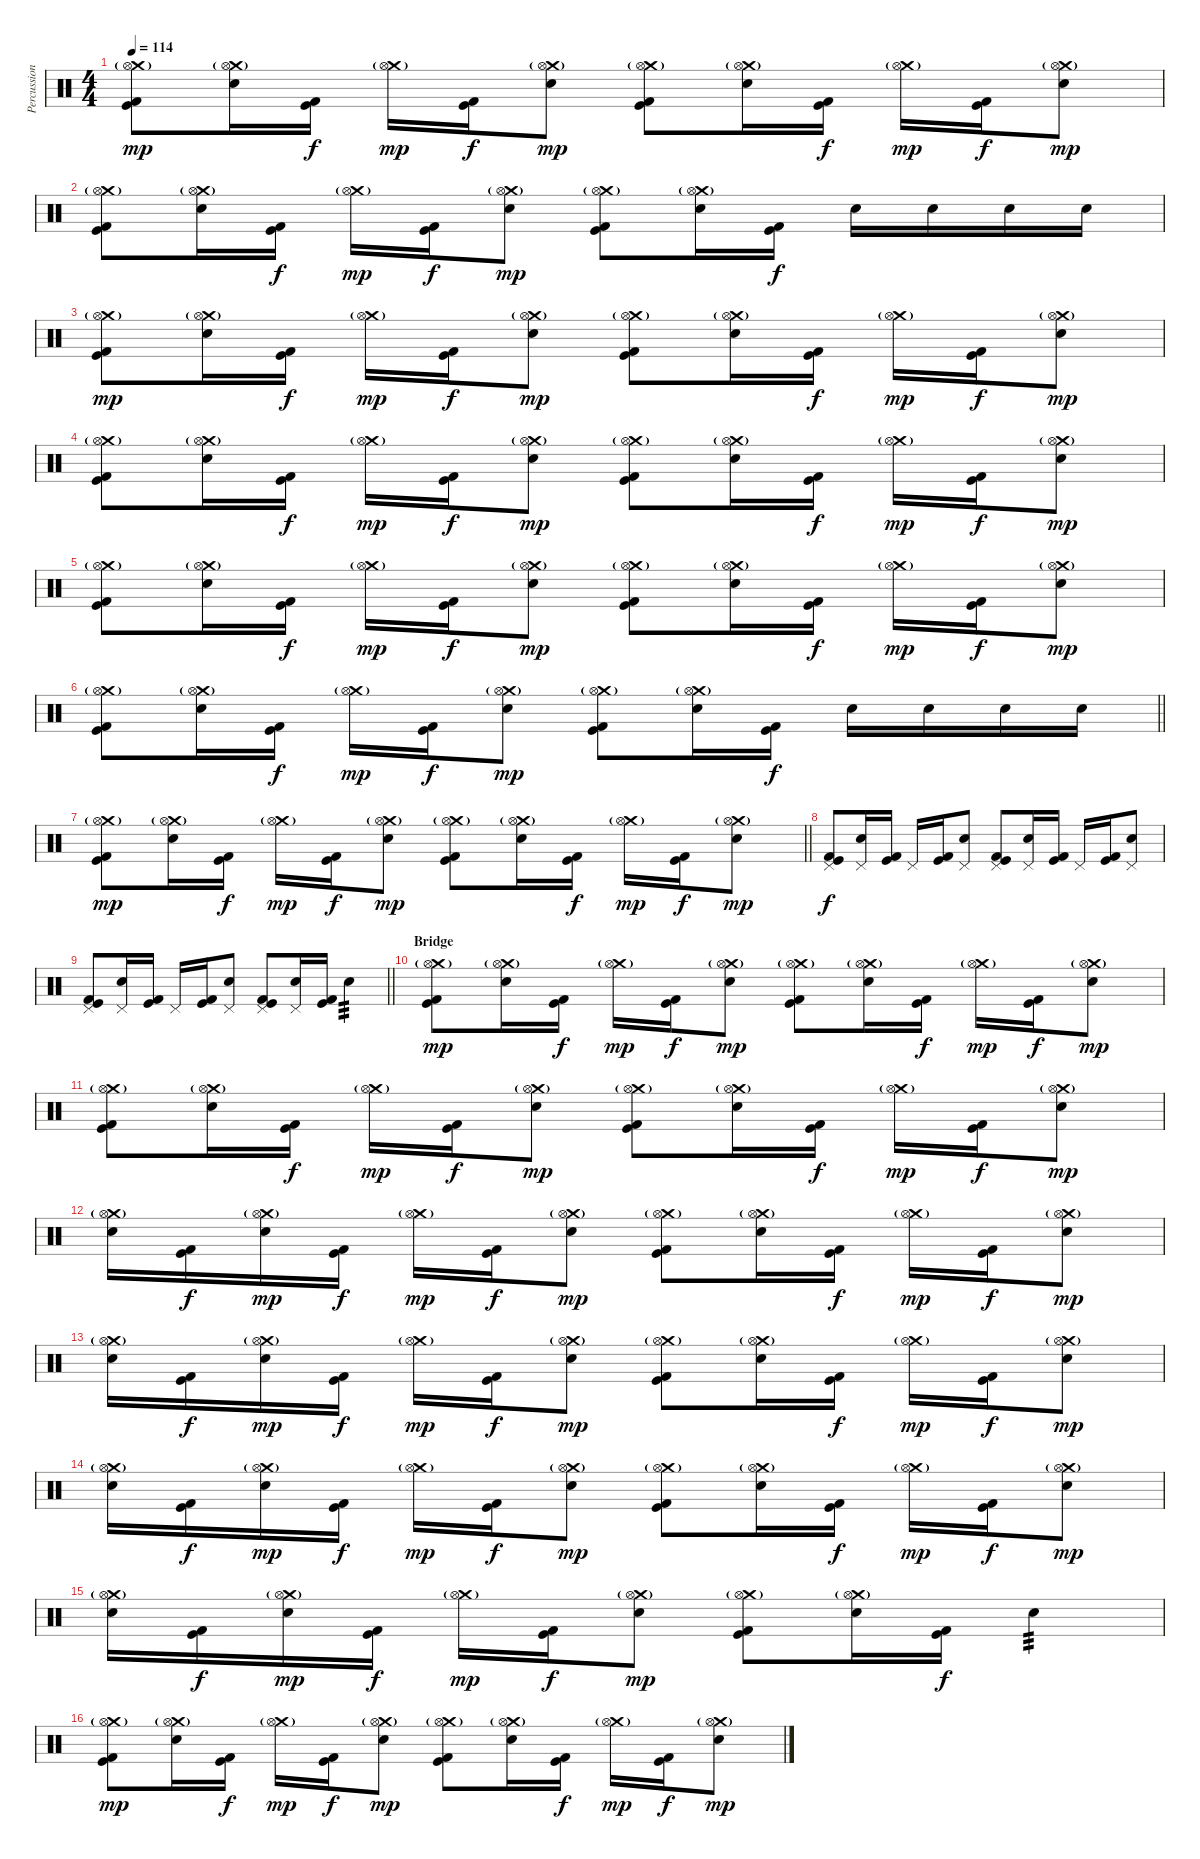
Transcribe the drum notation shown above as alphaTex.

\track ("Percussion" "Percussion") {instrument percussion}
\staff {score}
\articulation defaults
\ts (4 4)
\tempo 114
\clef neutral
\ks c
("Crash medium (hit)"{g} "Hi-Hat (open)" "Kick (hit)" "Kick (hit) 2").8{dy mp} ("Crash medium (hit)"{g} "Hi-Hat (open)" "Electric Snare (hit)").16 ("Kick (hit)" "Kick (hit) 2").16{dy f} ("Crash medium (hit)"{g} "Hi-Hat (open)").16{dy mp} ("Kick (hit)" "Kick (hit) 2").16{dy f} ("Crash medium (hit)"{g} "Hi-Hat (open)" "Electric Snare (hit)").8{dy mp} ("Crash medium (hit)"{g} "Hi-Hat (open)" "Kick (hit)" "Kick (hit) 2").8 ("Crash medium (hit)"{g} "Hi-Hat (open)" "Electric Snare (hit)").16 ("Kick (hit)" "Kick (hit) 2").16{dy f} ("Crash medium (hit)"{g} "Hi-Hat (open)").16{dy mp} ("Kick (hit)" "Kick (hit) 2").16{dy f} ("Crash medium (hit)"{g} "Hi-Hat (open)" "Electric Snare (hit)").8{dy mp} |
("Crash medium (hit)"{g} "Hi-Hat (open)" "Kick (hit)" "Kick (hit) 2").8 ("Crash medium (hit)"{g} "Hi-Hat (open)" "Electric Snare (hit)").16 ("Kick (hit)" "Kick (hit) 2").16{dy f} ("Crash medium (hit)"{g} "Hi-Hat (open)").16{dy mp} ("Kick (hit)" "Kick (hit) 2").16{dy f} ("Crash medium (hit)"{g} "Hi-Hat (open)" "Electric Snare (hit)").8{dy mp} ("Crash medium (hit)"{g} "Hi-Hat (open)" "Kick (hit)" "Kick (hit) 2").8 ("Crash medium (hit)"{g} "Hi-Hat (open)" "Electric Snare (hit)").16 ("Kick (hit)" "Kick (hit) 2").16{dy f} "Electric Snare (hit)".16 "Electric Snare (hit)".16 "Electric Snare (hit)".16 "Electric Snare (hit)".16 |
("Crash medium (hit)"{g} "Hi-Hat (open)" "Kick (hit)" "Kick (hit) 2").8{dy mp} ("Crash medium (hit)"{g} "Hi-Hat (open)" "Electric Snare (hit)").16 ("Kick (hit)" "Kick (hit) 2").16{dy f} ("Crash medium (hit)"{g} "Hi-Hat (open)").16{dy mp} ("Kick (hit)" "Kick (hit) 2").16{dy f} ("Crash medium (hit)"{g} "Hi-Hat (open)" "Electric Snare (hit)").8{dy mp} ("Crash medium (hit)"{g} "Hi-Hat (open)" "Kick (hit)" "Kick (hit) 2").8 ("Crash medium (hit)"{g} "Hi-Hat (open)" "Electric Snare (hit)").16 ("Kick (hit)" "Kick (hit) 2").16{dy f} ("Crash medium (hit)"{g} "Hi-Hat (open)").16{dy mp} ("Kick (hit)" "Kick (hit) 2").16{dy f} ("Crash medium (hit)"{g} "Hi-Hat (open)" "Electric Snare (hit)").8{dy mp} |
("Crash medium (hit)"{g} "Hi-Hat (open)" "Kick (hit)" "Kick (hit) 2").8 ("Crash medium (hit)"{g} "Hi-Hat (open)" "Electric Snare (hit)").16 ("Kick (hit)" "Kick (hit) 2").16{dy f} ("Crash medium (hit)"{g} "Hi-Hat (open)").16{dy mp} ("Kick (hit)" "Kick (hit) 2").16{dy f} ("Crash medium (hit)"{g} "Hi-Hat (open)" "Electric Snare (hit)").8{dy mp} ("Crash medium (hit)"{g} "Hi-Hat (open)" "Kick (hit)" "Kick (hit) 2").8 ("Crash medium (hit)"{g} "Hi-Hat (open)" "Electric Snare (hit)").16 ("Kick (hit)" "Kick (hit) 2").16{dy f} ("Crash medium (hit)"{g} "Hi-Hat (open)").16{dy mp} ("Kick (hit)" "Kick (hit) 2").16{dy f} ("Crash medium (hit)"{g} "Hi-Hat (open)" "Electric Snare (hit)").8{dy mp} |
("Crash medium (hit)"{g} "Hi-Hat (open)" "Kick (hit)" "Kick (hit) 2").8 ("Crash medium (hit)"{g} "Hi-Hat (open)" "Electric Snare (hit)").16 ("Kick (hit)" "Kick (hit) 2").16{dy f} ("Crash medium (hit)"{g} "Hi-Hat (open)").16{dy mp} ("Kick (hit)" "Kick (hit) 2").16{dy f} ("Crash medium (hit)"{g} "Hi-Hat (open)" "Electric Snare (hit)").8{dy mp} ("Crash medium (hit)"{g} "Hi-Hat (open)" "Kick (hit)" "Kick (hit) 2").8 ("Crash medium (hit)"{g} "Hi-Hat (open)" "Electric Snare (hit)").16 ("Kick (hit)" "Kick (hit) 2").16{dy f} ("Crash medium (hit)"{g} "Hi-Hat (open)").16{dy mp} ("Kick (hit)" "Kick (hit) 2").16{dy f} ("Crash medium (hit)"{g} "Hi-Hat (open)" "Electric Snare (hit)").8{dy mp} |
\barLineRight lightlight
("Crash medium (hit)"{g} "Hi-Hat (open)" "Kick (hit)" "Kick (hit) 2").8 ("Crash medium (hit)"{g} "Hi-Hat (open)" "Electric Snare (hit)").16 ("Kick (hit)" "Kick (hit) 2").16{dy f} ("Crash medium (hit)"{g} "Hi-Hat (open)").16{dy mp} ("Kick (hit)" "Kick (hit) 2").16{dy f} ("Crash medium (hit)"{g} "Hi-Hat (open)" "Electric Snare (hit)").8{dy mp} ("Crash medium (hit)"{g} "Hi-Hat (open)" "Kick (hit)" "Kick (hit) 2").8 ("Crash medium (hit)"{g} "Hi-Hat (open)" "Electric Snare (hit)").16 ("Kick (hit)" "Kick (hit) 2").16{dy f} "Electric Snare (hit)".16 "Electric Snare (hit)".16 "Electric Snare (hit)".16 "Electric Snare (hit)".16 |
\section ("" "")
\barLineRight lightlight
("Crash medium (hit)"{g} "Hi-Hat (open)" "Kick (hit)" "Kick (hit) 2").8{dy mp} ("Crash medium (hit)"{g} "Hi-Hat (open)" "Electric Snare (hit)").16 ("Kick (hit)" "Kick (hit) 2").16{dy f} ("Crash medium (hit)"{g} "Hi-Hat (open)").16{dy mp} ("Kick (hit)" "Kick (hit) 2").16{dy f} ("Crash medium (hit)"{g} "Hi-Hat (open)" "Electric Snare (hit)").8{dy mp} ("Crash medium (hit)"{g} "Hi-Hat (open)" "Kick (hit)" "Kick (hit) 2").8 ("Crash medium (hit)"{g} "Hi-Hat (open)" "Electric Snare (hit)").16 ("Kick (hit)" "Kick (hit) 2").16{dy f} ("Crash medium (hit)"{g} "Hi-Hat (open)").16{dy mp} ("Kick (hit)" "Kick (hit) 2").16{dy f} ("Crash medium (hit)"{g} "Hi-Hat (open)" "Electric Snare (hit)").8{dy mp} |
\section ("" "")
("Pedal Hi-Hat (hit)" "Kick (hit)" "Kick (hit) 2").8{dy f} ("Pedal Hi-Hat (hit)" "Electric Snare (hit)").16 ("Kick (hit)" "Kick (hit) 2").16 "Pedal Hi-Hat (hit)".16 ("Kick (hit)" "Kick (hit) 2").16 ("Pedal Hi-Hat (hit)" "Electric Snare (hit)").8 ("Pedal Hi-Hat (hit)" "Kick (hit)" "Kick (hit) 2").8 ("Pedal Hi-Hat (hit)" "Electric Snare (hit)").16 ("Kick (hit)" "Kick (hit) 2").16 "Pedal Hi-Hat (hit)".16 ("Kick (hit)" "Kick (hit) 2").16 ("Pedal Hi-Hat (hit)" "Electric Snare (hit)").8 |
\barLineRight lightlight
("Pedal Hi-Hat (hit)" "Kick (hit)" "Kick (hit) 2").8 ("Pedal Hi-Hat (hit)" "Electric Snare (hit)").16 ("Kick (hit)" "Kick (hit) 2").16 "Pedal Hi-Hat (hit)".16 ("Kick (hit)" "Kick (hit) 2").16 ("Pedal Hi-Hat (hit)" "Electric Snare (hit)").8 ("Pedal Hi-Hat (hit)" "Kick (hit)" "Kick (hit) 2").8 ("Pedal Hi-Hat (hit)" "Electric Snare (hit)").16 ("Kick (hit)" "Kick (hit) 2").16 "Electric Snare (hit)".4{tp 3} |
\section ("" "Bridge")
("Crash medium (hit)"{g} "Hi-Hat (open)" "Kick (hit)" "Kick (hit) 2").8{dy mp} ("Crash medium (hit)"{g} "Hi-Hat (open)" "Electric Snare (hit)").16 ("Kick (hit)" "Kick (hit) 2").16{dy f} ("Crash medium (hit)"{g} "Hi-Hat (open)").16{dy mp} ("Kick (hit)" "Kick (hit) 2").16{dy f} ("Crash medium (hit)"{g} "Hi-Hat (open)" "Electric Snare (hit)").8{dy mp} ("Crash medium (hit)"{g} "Hi-Hat (open)" "Kick (hit)" "Kick (hit) 2").8 ("Crash medium (hit)"{g} "Hi-Hat (open)" "Electric Snare (hit)").16 ("Kick (hit)" "Kick (hit) 2").16{dy f} ("Crash medium (hit)"{g} "Hi-Hat (open)").16{dy mp} ("Kick (hit)" "Kick (hit) 2").16{dy f} ("Crash medium (hit)"{g} "Hi-Hat (open)" "Electric Snare (hit)").8{dy mp} |
("Crash medium (hit)"{g} "Hi-Hat (open)" "Kick (hit)" "Kick (hit) 2").8 ("Crash medium (hit)"{g} "Hi-Hat (open)" "Electric Snare (hit)").16 ("Kick (hit)" "Kick (hit) 2").16{dy f} ("Crash medium (hit)"{g} "Hi-Hat (open)").16{dy mp} ("Kick (hit)" "Kick (hit) 2").16{dy f} ("Crash medium (hit)"{g} "Hi-Hat (open)" "Electric Snare (hit)").8{dy mp} ("Crash medium (hit)"{g} "Hi-Hat (open)" "Kick (hit)" "Kick (hit) 2").8 ("Crash medium (hit)"{g} "Hi-Hat (open)" "Electric Snare (hit)").16 ("Kick (hit)" "Kick (hit) 2").16{dy f} ("Crash medium (hit)"{g} "Hi-Hat (open)").16{dy mp} ("Kick (hit)" "Kick (hit) 2").16{dy f} ("Crash medium (hit)"{g} "Hi-Hat (open)" "Electric Snare (hit)").8{dy mp} |
("Crash medium (hit)"{g} "Hi-Hat (open)" "Electric Snare (hit)").16 ("Kick (hit)" "Kick (hit) 2").16{dy f} ("Crash medium (hit)"{g} "Hi-Hat (open)" "Electric Snare (hit)").16{dy mp} ("Kick (hit)" "Kick (hit) 2").16{dy f} ("Crash medium (hit)"{g} "Hi-Hat (open)").16{dy mp} ("Kick (hit)" "Kick (hit) 2").16{dy f} ("Crash medium (hit)"{g} "Hi-Hat (open)" "Electric Snare (hit)").8{dy mp} ("Crash medium (hit)"{g} "Hi-Hat (open)" "Kick (hit)" "Kick (hit) 2").8 ("Crash medium (hit)"{g} "Hi-Hat (open)" "Electric Snare (hit)").16 ("Kick (hit)" "Kick (hit) 2").16{dy f} ("Crash medium (hit)"{g} "Hi-Hat (open)").16{dy mp} ("Kick (hit)" "Kick (hit) 2").16{dy f} ("Crash medium (hit)"{g} "Hi-Hat (open)" "Electric Snare (hit)").8{dy mp} |
("Crash medium (hit)"{g} "Hi-Hat (open)" "Electric Snare (hit)").16 ("Kick (hit)" "Kick (hit) 2").16{dy f} ("Crash medium (hit)"{g} "Hi-Hat (open)" "Electric Snare (hit)").16{dy mp} ("Kick (hit)" "Kick (hit) 2").16{dy f} ("Crash medium (hit)"{g} "Hi-Hat (open)").16{dy mp} ("Kick (hit)" "Kick (hit) 2").16{dy f} ("Crash medium (hit)"{g} "Hi-Hat (open)" "Electric Snare (hit)").8{dy mp} ("Crash medium (hit)"{g} "Hi-Hat (open)" "Kick (hit)" "Kick (hit) 2").8 ("Crash medium (hit)"{g} "Hi-Hat (open)" "Electric Snare (hit)").16 ("Kick (hit)" "Kick (hit) 2").16{dy f} ("Crash medium (hit)"{g} "Hi-Hat (open)").16{dy mp} ("Kick (hit)" "Kick (hit) 2").16{dy f} ("Crash medium (hit)"{g} "Hi-Hat (open)" "Electric Snare (hit)").8{dy mp} |
("Crash medium (hit)"{g} "Hi-Hat (open)" "Electric Snare (hit)").16 ("Kick (hit)" "Kick (hit) 2").16{dy f} ("Crash medium (hit)"{g} "Hi-Hat (open)" "Electric Snare (hit)").16{dy mp} ("Kick (hit)" "Kick (hit) 2").16{dy f} ("Crash medium (hit)"{g} "Hi-Hat (open)").16{dy mp} ("Kick (hit)" "Kick (hit) 2").16{dy f} ("Crash medium (hit)"{g} "Hi-Hat (open)" "Electric Snare (hit)").8{dy mp} ("Crash medium (hit)"{g} "Hi-Hat (open)" "Kick (hit)" "Kick (hit) 2").8 ("Crash medium (hit)"{g} "Hi-Hat (open)" "Electric Snare (hit)").16 ("Kick (hit)" "Kick (hit) 2").16{dy f} ("Crash medium (hit)"{g} "Hi-Hat (open)").16{dy mp} ("Kick (hit)" "Kick (hit) 2").16{dy f} ("Crash medium (hit)"{g} "Hi-Hat (open)" "Electric Snare (hit)").8{dy mp} |
("Crash medium (hit)"{g} "Hi-Hat (open)" "Electric Snare (hit)").16 ("Kick (hit)" "Kick (hit) 2").16{dy f} ("Crash medium (hit)"{g} "Hi-Hat (open)" "Electric Snare (hit)").16{dy mp} ("Kick (hit)" "Kick (hit) 2").16{dy f} ("Crash medium (hit)"{g} "Hi-Hat (open)").16{dy mp} ("Kick (hit)" "Kick (hit) 2").16{dy f} ("Crash medium (hit)"{g} "Hi-Hat (open)" "Electric Snare (hit)").8{dy mp} ("Crash medium (hit)"{g} "Hi-Hat (open)" "Kick (hit)" "Kick (hit) 2").8 ("Crash medium (hit)"{g} "Hi-Hat (open)" "Electric Snare (hit)").16 ("Kick (hit)" "Kick (hit) 2").16{dy f} "Electric Snare (hit)".4{tp 3} |
("Crash medium (hit)"{g} "Hi-Hat (open)" "Kick (hit)" "Kick (hit) 2").8{dy mp} ("Crash medium (hit)"{g} "Hi-Hat (open)" "Electric Snare (hit)").16 ("Kick (hit)" "Kick (hit) 2").16{dy f} ("Crash medium (hit)"{g} "Hi-Hat (open)").16{dy mp} ("Kick (hit)" "Kick (hit) 2").16{dy f} ("Crash medium (hit)"{g} "Hi-Hat (open)" "Electric Snare (hit)").8{dy mp} ("Crash medium (hit)"{g} "Hi-Hat (open)" "Kick (hit)" "Kick (hit) 2").8 ("Crash medium (hit)"{g} "Hi-Hat (open)" "Electric Snare (hit)").16 ("Kick (hit)" "Kick (hit) 2").16{dy f} ("Crash medium (hit)"{g} "Hi-Hat (open)").16{dy mp} ("Kick (hit)" "Kick (hit) 2").16{dy f} ("Crash medium (hit)"{g} "Hi-Hat (open)" "Electric Snare (hit)").8{dy mp}
